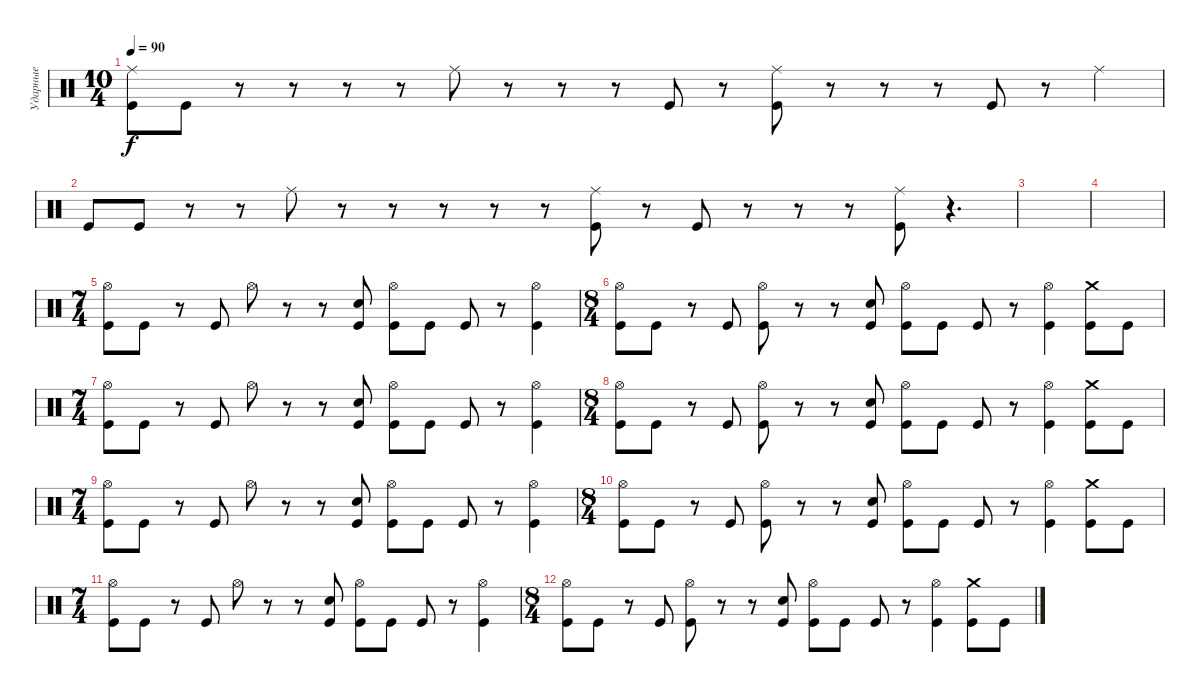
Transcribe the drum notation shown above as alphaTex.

\track ("Ударные" "Ударные") {instrument percussion}
\staff {score}
\articulation defaults
\ts (10 4)
\tempo 90
\clef neutral
\ks c
("Ride (middle)" "Kick (hit)").8{dy f} "Kick (hit)".8 r.8 r.8 r.8 r.8 "Ride (middle)".8 r.8 r.8 r.8 "Kick (hit)".8 r.8 ("Ride (middle)" "Kick (hit)").8 r.8 r.8 r.8 "Kick (hit)".8 r.8 "Ride (middle)".4 |
"Kick (hit)".8 "Kick (hit)".8 r.8 r.8 "Ride (middle)".8 r.8 r.8 r.8 r.8 r.8 ("Ride (middle)" "Kick (hit)").8 r.8 "Kick (hit)".8 r.8 r.8 r.8 ("Ride (middle)" "Kick (hit)").8 r.4{d} |
|
|
\ts (7 4)
("Kick (hit)" "Hi-Hat (open)").8 "Kick (hit)".8 r.8 "Kick (hit)".8 "Hi-Hat (open)".8 r.8 r.8 ("Kick (hit)" "Snare (hit) 2").8 ("Kick (hit)" "Hi-Hat (open)").8 "Kick (hit)".8 "Kick (hit)".8 r.8 ("Kick (hit)" "Hi-Hat (open)").4 |
\ts (8 4)
("Kick (hit)" "Hi-Hat (open)").8 "Kick (hit)".8 r.8 "Kick (hit)".8 ("Kick (hit)" "Hi-Hat (open)").8 r.8 r.8 ("Kick (hit)" "Snare (hit) 2").8 ("Kick (hit)" "Hi-Hat (open)").8 "Kick (hit)".8 "Kick (hit)".8 r.8 ("Kick (hit)" "Hi-Hat (open)").4 ("Kick (hit)" "Crash medium (hit)").8 "Kick (hit)".8 |
\ts (7 4)
("Kick (hit)" "Hi-Hat (open)").8 "Kick (hit)".8 r.8 "Kick (hit)".8 "Hi-Hat (open)".8 r.8 r.8 ("Kick (hit)" "Snare (hit) 2").8 ("Kick (hit)" "Hi-Hat (open)").8 "Kick (hit)".8 "Kick (hit)".8 r.8 ("Kick (hit)" "Hi-Hat (open)").4 |
\ts (8 4)
("Kick (hit)" "Hi-Hat (open)").8 "Kick (hit)".8 r.8 "Kick (hit)".8 ("Kick (hit)" "Hi-Hat (open)").8 r.8 r.8 ("Kick (hit)" "Snare (hit) 2").8 ("Kick (hit)" "Hi-Hat (open)").8 "Kick (hit)".8 "Kick (hit)".8 r.8 ("Kick (hit)" "Hi-Hat (open)").4 ("Kick (hit)" "Crash medium (hit)").8 "Kick (hit)".8 |
\ts (7 4)
("Kick (hit)" "Hi-Hat (open)").8 "Kick (hit)".8 r.8 "Kick (hit)".8 "Hi-Hat (open)".8 r.8 r.8 ("Kick (hit)" "Snare (hit) 2").8 ("Kick (hit)" "Hi-Hat (open)").8 "Kick (hit)".8 "Kick (hit)".8 r.8 ("Kick (hit)" "Hi-Hat (open)").4 |
\ts (8 4)
("Kick (hit)" "Hi-Hat (open)").8 "Kick (hit)".8 r.8 "Kick (hit)".8 ("Kick (hit)" "Hi-Hat (open)").8 r.8 r.8 ("Kick (hit)" "Snare (hit) 2").8 ("Kick (hit)" "Hi-Hat (open)").8 "Kick (hit)".8 "Kick (hit)".8 r.8 ("Kick (hit)" "Hi-Hat (open)").4 ("Kick (hit)" "Crash medium (hit)").8 "Kick (hit)".8 |
\ts (7 4)
("Kick (hit)" "Hi-Hat (open)").8 "Kick (hit)".8 r.8 "Kick (hit)".8 "Hi-Hat (open)".8 r.8 r.8 ("Kick (hit)" "Snare (hit) 2").8 ("Kick (hit)" "Hi-Hat (open)").8 "Kick (hit)".8 "Kick (hit)".8 r.8 ("Kick (hit)" "Hi-Hat (open)").4 |
\ts (8 4)
("Kick (hit)" "Hi-Hat (open)").8 "Kick (hit)".8 r.8 "Kick (hit)".8 ("Kick (hit)" "Hi-Hat (open)").8 r.8 r.8 ("Kick (hit)" "Snare (hit) 2").8 ("Kick (hit)" "Hi-Hat (open)").8 "Kick (hit)".8 "Kick (hit)".8 r.8 ("Kick (hit)" "Hi-Hat (open)").4 ("Kick (hit)" "Crash medium (hit)").8 "Kick (hit)".8
